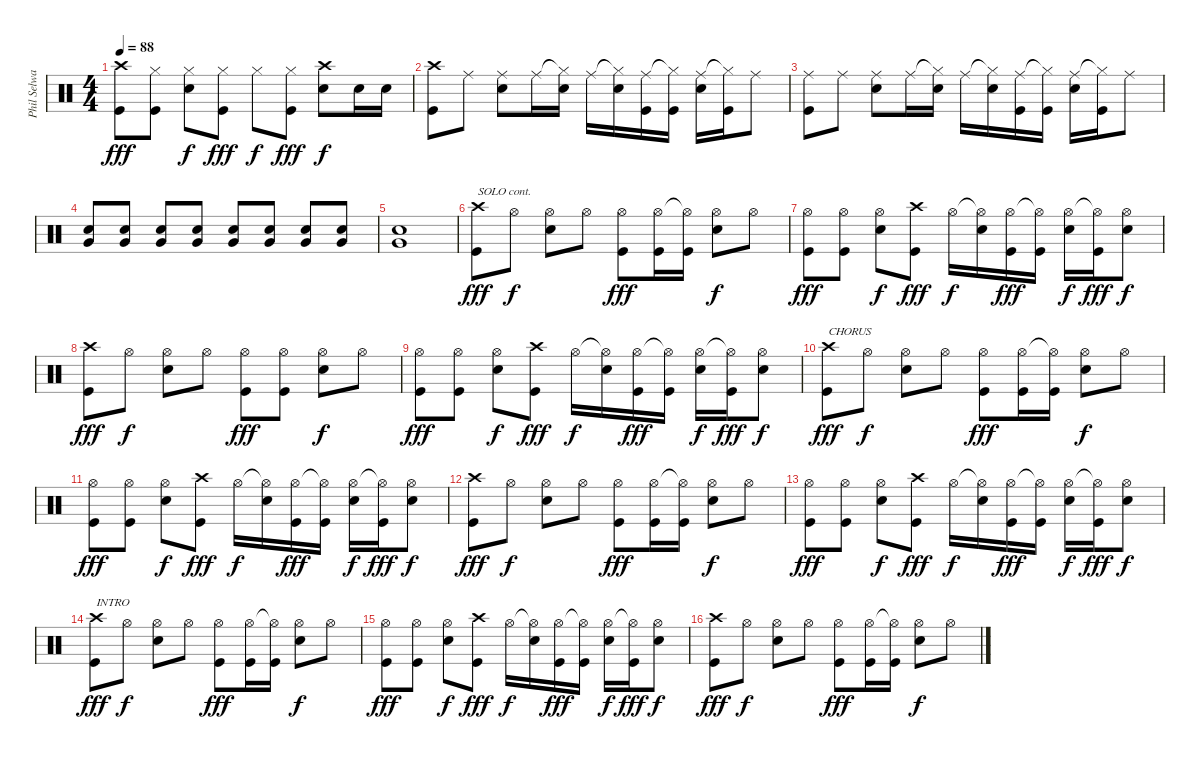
\track ("Phil Selway" "Phil Selwa") {instrument percussion}
\staff {score}
\articulation defaults
\ts (4 4)
\tempo 88
\clef neutral
\ks c
("Crash high (hit)" "Kick (hit)").8{dy fff} ("Hi-Hat (closed)" "Kick (hit)").8 ("Hi-Hat (closed)" "Snare (hit) 2").8{dy f} ("Hi-Hat (closed)" "Kick (hit)").8{dy fff} "Hi-Hat (closed)".8{dy f} ("Hi-Hat (closed)" "Kick (hit)").8{dy fff} ("Crash high (hit)" "Snare (hit) 2").8{dy f} "Snare (hit) 2".16 "Snare (hit) 2".16 |
("Crash high (hit)" "Kick (hit)").8 "Ride (middle)".8 ("Ride (middle)" "Snare (hit) 2").8 "Ride (middle)".16 ("Hi-Hat (closed)"{t} "Snare (hit) 2").16 "Ride (middle)".16 ("Hi-Hat (closed)"{t} "Snare (hit) 2").16 ("Ride (middle)" "Kick (hit)").16 ("Hi-Hat (closed)"{t} "Kick (hit)").16 ("Ride (middle)" "Snare (hit) 2").16 ("Hi-Hat (closed)"{t} "Kick (hit)").16 "Ride (middle)".8 |
("Ride (middle)" "Kick (hit)").8 "Ride (middle)".8 ("Ride (middle)" "Snare (hit) 2").8 "Ride (middle)".16 ("Hi-Hat (closed)"{t} "Snare (hit) 2").16 "Ride (middle)".16 ("Hi-Hat (closed)"{t} "Snare (hit) 2").16 ("Ride (middle)" "Kick (hit)").16 ("Hi-Hat (closed)"{t} "Kick (hit)").16 ("Ride (middle)" "Snare (hit) 2").16 ("Hi-Hat (closed)"{t} "Kick (hit)").16 "Ride (middle)".8 |
("Snare (hit) 2" "Very Low Tom (hit)").8 ("Snare (hit) 2" "Very Low Tom (hit)").8 ("Snare (hit) 2" "Very Low Tom (hit)").8 ("Snare (hit) 2" "Very Low Tom (hit)").8 ("Snare (hit) 2" "Very Low Tom (hit)").8 ("Snare (hit) 2" "Very Low Tom (hit)").8 ("Snare (hit) 2" "Very Low Tom (hit)").8 ("Snare (hit) 2" "Very Low Tom (hit)").8 |
("Snare (hit) 2" "Very Low Tom (hit)").1 |
("Crash high (hit)" "Kick (hit)").8{txt "SOLO cont." dy fff} "Hi-Hat (open)".8{dy f} ("Hi-Hat (open)" "Snare (hit) 2").8 "Hi-Hat (open)".8 ("Hi-Hat (open)" "Kick (hit)").8{dy fff} ("Hi-Hat (open)" "Kick (hit)").16 ("Hi-Hat (open)"{t} "Kick (hit)").16 ("Hi-Hat (open)" "Snare (hit) 2").8{dy f} "Hi-Hat (open)".8 |
("Hi-Hat (open)" "Kick (hit)").8{dy fff} ("Hi-Hat (open)" "Kick (hit)").8 ("Hi-Hat (open)" "Snare (hit) 2").8{dy f} ("Crash high (hit)" "Kick (hit)").8{dy fff} "Hi-Hat (open)".16{dy f} ("Hi-Hat (open)"{t} "Snare (hit) 2").16 ("Hi-Hat (open)" "Kick (hit)").16{dy fff} ("Hi-Hat (open)"{t} "Kick (hit)").16 ("Hi-Hat (open)" "Snare (hit) 2").16{dy f} ("Hi-Hat (open)"{t} "Kick (hit)").16{dy fff} ("Hi-Hat (open)" "Snare (hit) 2").8{dy f} |
("Crash high (hit)" "Kick (hit)").8{dy fff} "Hi-Hat (open)".8{dy f} ("Hi-Hat (open)" "Snare (hit) 2").8 "Hi-Hat (open)".8 ("Hi-Hat (open)" "Kick (hit)").8{dy fff} ("Hi-Hat (open)" "Kick (hit)").8 ("Hi-Hat (open)" "Snare (hit) 2").8{dy f} "Hi-Hat (open)".8 |
("Hi-Hat (open)" "Kick (hit)").8{dy fff} ("Hi-Hat (open)" "Kick (hit)").8 ("Hi-Hat (open)" "Snare (hit) 2").8{dy f} ("Crash high (hit)" "Kick (hit)").8{dy fff} "Hi-Hat (open)".16{dy f} ("Hi-Hat (open)"{t} "Snare (hit) 2").16 ("Hi-Hat (open)" "Kick (hit)").16{dy fff} ("Hi-Hat (open)"{t} "Kick (hit)").16 ("Hi-Hat (open)" "Snare (hit) 2").16{dy f} ("Hi-Hat (open)"{t} "Kick (hit)").16{dy fff} ("Hi-Hat (open)" "Snare (hit) 2").8{dy f} |
("Crash high (hit)" "Kick (hit)").8{txt "CHORUS" dy fff} "Hi-Hat (open)".8{dy f} ("Hi-Hat (open)" "Snare (hit) 2").8 "Hi-Hat (open)".8 ("Hi-Hat (open)" "Kick (hit)").8{dy fff} ("Hi-Hat (open)" "Kick (hit)").16 ("Hi-Hat (open)"{t} "Kick (hit)").16 ("Hi-Hat (open)" "Snare (hit) 2").8{dy f} "Hi-Hat (open)".8 |
("Hi-Hat (open)" "Kick (hit)").8{dy fff} ("Hi-Hat (open)" "Kick (hit)").8 ("Hi-Hat (open)" "Snare (hit) 2").8{dy f} ("Crash high (hit)" "Kick (hit)").8{dy fff} "Hi-Hat (open)".16{dy f} ("Hi-Hat (open)"{t} "Snare (hit) 2").16 ("Hi-Hat (open)" "Kick (hit)").16{dy fff} ("Hi-Hat (open)"{t} "Kick (hit)").16 ("Hi-Hat (open)" "Snare (hit) 2").16{dy f} ("Hi-Hat (open)"{t} "Kick (hit)").16{dy fff} ("Hi-Hat (open)" "Snare (hit) 2").8{dy f} |
("Crash high (hit)" "Kick (hit)").8{dy fff} "Hi-Hat (open)".8{dy f} ("Hi-Hat (open)" "Snare (hit) 2").8 "Hi-Hat (open)".8 ("Hi-Hat (open)" "Kick (hit)").8{dy fff} ("Hi-Hat (open)" "Kick (hit)").16 ("Hi-Hat (open)"{t} "Kick (hit)").16 ("Hi-Hat (open)" "Snare (hit) 2").8{dy f} "Hi-Hat (open)".8 |
("Hi-Hat (open)" "Kick (hit)").8{dy fff} ("Hi-Hat (open)" "Kick (hit)").8 ("Hi-Hat (open)" "Snare (hit) 2").8{dy f} ("Crash high (hit)" "Kick (hit)").8{dy fff} "Hi-Hat (open)".16{dy f} ("Hi-Hat (open)"{t} "Snare (hit) 2").16 ("Hi-Hat (open)" "Kick (hit)").16{dy fff} ("Hi-Hat (open)"{t} "Kick (hit)").16 ("Hi-Hat (open)" "Snare (hit) 2").16{dy f} ("Hi-Hat (open)"{t} "Kick (hit)").16{dy fff} ("Hi-Hat (open)" "Snare (hit) 2").8{dy f} |
("Crash high (hit)" "Kick (hit)").8{txt "INTRO" dy fff} "Hi-Hat (open)".8{dy f} ("Hi-Hat (open)" "Snare (hit) 2").8 "Hi-Hat (open)".8 ("Hi-Hat (open)" "Kick (hit)").8{dy fff} ("Hi-Hat (open)" "Kick (hit)").16 ("Hi-Hat (open)"{t} "Kick (hit)").16 ("Hi-Hat (open)" "Snare (hit) 2").8{dy f} "Hi-Hat (open)".8 |
("Hi-Hat (open)" "Kick (hit)").8{dy fff} ("Hi-Hat (open)" "Kick (hit)").8 ("Hi-Hat (open)" "Snare (hit) 2").8{dy f} ("Crash high (hit)" "Kick (hit)").8{dy fff} "Hi-Hat (open)".16{dy f} ("Hi-Hat (open)"{t} "Snare (hit) 2").16 ("Hi-Hat (open)" "Kick (hit)").16{dy fff} ("Hi-Hat (open)"{t} "Kick (hit)").16 ("Hi-Hat (open)" "Snare (hit) 2").16{dy f} ("Hi-Hat (open)"{t} "Kick (hit)").16{dy fff} ("Hi-Hat (open)" "Snare (hit) 2").8{dy f} |
("Crash high (hit)" "Kick (hit)").8{dy fff} "Hi-Hat (open)".8{dy f} ("Hi-Hat (open)" "Snare (hit) 2").8 "Hi-Hat (open)".8 ("Hi-Hat (open)" "Kick (hit)").8{dy fff} ("Hi-Hat (open)" "Kick (hit)").16 ("Hi-Hat (open)"{t} "Kick (hit)").16 ("Hi-Hat (open)" "Snare (hit) 2").8{dy f} "Hi-Hat (open)".8
